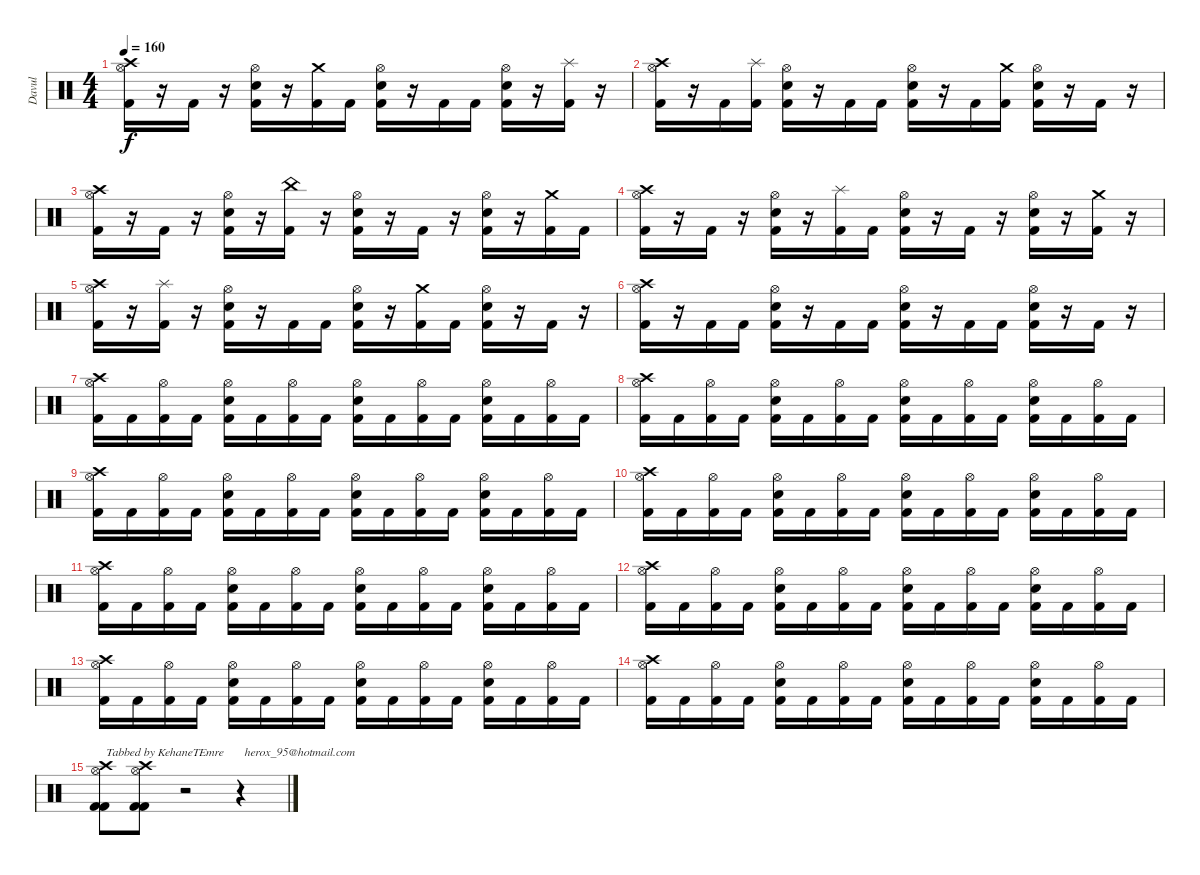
\track ("Davul" "Davul") {instrument percussion}
\staff {score}
\articulation defaults
\ts (4 4)
\tempo 160
\clef neutral
\ks c
("Crash high (hit)" "Hi-Hat (open)" "Kick (hit) 2").16{dy f} r.16 "Kick (hit) 2".16 r.16 ("Hi-Hat (open)" "Electric Snare (hit)" "Kick (hit) 2").16 r.16 ("Crash medium (hit)" "Kick (hit) 2").16 "Kick (hit) 2".16 ("Hi-Hat (open)" "Electric Snare (hit)" "Kick (hit) 2").16 r.16 "Kick (hit) 2".16 "Kick (hit) 2".16 ("Hi-Hat (open)" "Electric Snare (hit)" "Kick (hit) 2").16 r.16 ("Splash (hit)" "Kick (hit) 2").16 r.16 |
("Crash high (hit)" "Hi-Hat (open)" "Kick (hit) 2").16 r.16 "Kick (hit) 2".16 ("Splash (hit)" "Kick (hit) 2").16 ("Hi-Hat (open)" "Electric Snare (hit)" "Kick (hit) 2").16 r.16 "Kick (hit) 2".16 "Kick (hit) 2".16 ("Hi-Hat (open)" "Electric Snare (hit)" "Kick (hit) 2").16 r.16 "Kick (hit) 2".16 ("Crash medium (hit)" "Kick (hit) 2").16 ("Hi-Hat (open)" "Electric Snare (hit)" "Kick (hit) 2").16 r.16 "Kick (hit) 2".16 r.16 |
("Crash high (hit)" "Hi-Hat (open)" "Kick (hit) 2").16 r.16 "Kick (hit) 2".16 r.16 ("Hi-Hat (open)" "Electric Snare (hit)" "Kick (hit) 2").16 r.16 ("China (hit)" "Kick (hit) 2").16 r.16 ("Hi-Hat (open)" "Electric Snare (hit)" "Kick (hit) 2").16 r.16 "Kick (hit) 2".16 r.16 ("Hi-Hat (open)" "Electric Snare (hit)" "Kick (hit) 2").16 r.16 ("Crash medium (hit)" "Kick (hit) 2").16 "Kick (hit) 2".16 |
("Crash high (hit)" "Hi-Hat (open)" "Kick (hit) 2").16 r.16 "Kick (hit) 2".16 r.16 ("Hi-Hat (open)" "Electric Snare (hit)" "Kick (hit) 2").16 r.16 ("Splash (hit)" "Kick (hit) 2").16 "Kick (hit) 2".16 ("Hi-Hat (open)" "Electric Snare (hit)" "Kick (hit) 2").16 r.16 "Kick (hit) 2".16 r.16 ("Hi-Hat (open)" "Electric Snare (hit)" "Kick (hit) 2").16 r.16 ("Crash medium (hit)" "Kick (hit) 2").16 r.16 |
("Crash high (hit)" "Hi-Hat (open)" "Kick (hit) 2").16 r.16 ("Splash (hit)" "Kick (hit) 2").16 r.16 ("Hi-Hat (open)" "Electric Snare (hit)" "Kick (hit) 2").16 r.16 "Kick (hit) 2".16 "Kick (hit) 2".16 ("Hi-Hat (open)" "Electric Snare (hit)" "Kick (hit) 2").16 r.16 ("Crash medium (hit)" "Kick (hit) 2").16 "Kick (hit) 2".16 ("Hi-Hat (open)" "Electric Snare (hit)" "Kick (hit) 2").16 r.16 "Kick (hit) 2".16 r.16 |
("Crash high (hit)" "Hi-Hat (open)" "Kick (hit) 2").16 r.16 "Kick (hit) 2".16 "Kick (hit) 2".16 ("Hi-Hat (open)" "Electric Snare (hit)" "Kick (hit) 2").16 r.16 "Kick (hit) 2".16 "Kick (hit) 2".16 ("Hi-Hat (open)" "Electric Snare (hit)" "Kick (hit) 2").16 r.16 "Kick (hit) 2".16 "Kick (hit) 2".16 ("Hi-Hat (open)" "Electric Snare (hit)" "Kick (hit) 2").16 r.16 "Kick (hit) 2".16 r.16 |
("Hi-Hat (open)" "Crash high (hit)" "Kick (hit) 2").16 "Kick (hit) 2".16 ("Hi-Hat (open)" "Kick (hit) 2").16 "Kick (hit) 2".16 ("Hi-Hat (open)" "Electric Snare (hit)" "Kick (hit) 2").16 "Kick (hit) 2".16 ("Hi-Hat (open)" "Kick (hit) 2").16 "Kick (hit) 2".16 ("Hi-Hat (open)" "Electric Snare (hit)" "Kick (hit) 2").16 "Kick (hit) 2".16 ("Hi-Hat (open)" "Kick (hit) 2").16 "Kick (hit) 2".16 ("Hi-Hat (open)" "Electric Snare (hit)" "Kick (hit) 2").16 "Kick (hit) 2".16 ("Hi-Hat (open)" "Kick (hit) 2").16 "Kick (hit) 2".16 |
("Hi-Hat (open)" "Crash high (hit)" "Kick (hit) 2").16 "Kick (hit) 2".16 ("Hi-Hat (open)" "Kick (hit) 2").16 "Kick (hit) 2".16 ("Hi-Hat (open)" "Electric Snare (hit)" "Kick (hit) 2").16 "Kick (hit) 2".16 ("Hi-Hat (open)" "Kick (hit) 2").16 "Kick (hit) 2".16 ("Hi-Hat (open)" "Electric Snare (hit)" "Kick (hit) 2").16 "Kick (hit) 2".16 ("Hi-Hat (open)" "Kick (hit) 2").16 "Kick (hit) 2".16 ("Hi-Hat (open)" "Electric Snare (hit)" "Kick (hit) 2").16 "Kick (hit) 2".16 ("Hi-Hat (open)" "Kick (hit) 2").16 "Kick (hit) 2".16 |
("Hi-Hat (open)" "Crash high (hit)" "Kick (hit) 2").16 "Kick (hit) 2".16 ("Hi-Hat (open)" "Kick (hit) 2").16 "Kick (hit) 2".16 ("Hi-Hat (open)" "Electric Snare (hit)" "Kick (hit) 2").16 "Kick (hit) 2".16 ("Hi-Hat (open)" "Kick (hit) 2").16 "Kick (hit) 2".16 ("Hi-Hat (open)" "Electric Snare (hit)" "Kick (hit) 2").16 "Kick (hit) 2".16 ("Hi-Hat (open)" "Kick (hit) 2").16 "Kick (hit) 2".16 ("Hi-Hat (open)" "Electric Snare (hit)" "Kick (hit) 2").16 "Kick (hit) 2".16 ("Hi-Hat (open)" "Kick (hit) 2").16 "Kick (hit) 2".16 |
("Hi-Hat (open)" "Crash high (hit)" "Kick (hit) 2").16 "Kick (hit) 2".16 ("Hi-Hat (open)" "Kick (hit) 2").16 "Kick (hit) 2".16 ("Hi-Hat (open)" "Electric Snare (hit)" "Kick (hit) 2").16 "Kick (hit) 2".16 ("Hi-Hat (open)" "Kick (hit) 2").16 "Kick (hit) 2".16 ("Hi-Hat (open)" "Electric Snare (hit)" "Kick (hit) 2").16 "Kick (hit) 2".16 ("Hi-Hat (open)" "Kick (hit) 2").16 "Kick (hit) 2".16 ("Hi-Hat (open)" "Electric Snare (hit)" "Kick (hit) 2").16 "Kick (hit) 2".16 ("Hi-Hat (open)" "Kick (hit) 2").16 "Kick (hit) 2".16 |
("Hi-Hat (open)" "Crash high (hit)" "Kick (hit) 2").16 "Kick (hit) 2".16 ("Hi-Hat (open)" "Kick (hit) 2").16 "Kick (hit) 2".16 ("Hi-Hat (open)" "Electric Snare (hit)" "Kick (hit) 2").16 "Kick (hit) 2".16 ("Hi-Hat (open)" "Kick (hit) 2").16 "Kick (hit) 2".16 ("Hi-Hat (open)" "Electric Snare (hit)" "Kick (hit) 2").16 "Kick (hit) 2".16 ("Hi-Hat (open)" "Kick (hit) 2").16 "Kick (hit) 2".16 ("Hi-Hat (open)" "Electric Snare (hit)" "Kick (hit) 2").16 "Kick (hit) 2".16 ("Hi-Hat (open)" "Kick (hit) 2").16 "Kick (hit) 2".16 |
("Hi-Hat (open)" "Crash high (hit)" "Kick (hit) 2").16 "Kick (hit) 2".16 ("Hi-Hat (open)" "Kick (hit) 2").16 "Kick (hit) 2".16 ("Hi-Hat (open)" "Electric Snare (hit)" "Kick (hit) 2").16 "Kick (hit) 2".16 ("Hi-Hat (open)" "Kick (hit) 2").16 "Kick (hit) 2".16 ("Hi-Hat (open)" "Electric Snare (hit)" "Kick (hit) 2").16 "Kick (hit) 2".16 ("Hi-Hat (open)" "Kick (hit) 2").16 "Kick (hit) 2".16 ("Hi-Hat (open)" "Electric Snare (hit)" "Kick (hit) 2").16 "Kick (hit) 2".16 ("Hi-Hat (open)" "Kick (hit) 2").16 "Kick (hit) 2".16 |
("Hi-Hat (open)" "Crash high (hit)" "Kick (hit) 2").16 "Kick (hit) 2".16 ("Hi-Hat (open)" "Kick (hit) 2").16 "Kick (hit) 2".16 ("Hi-Hat (open)" "Electric Snare (hit)" "Kick (hit) 2").16 "Kick (hit) 2".16 ("Hi-Hat (open)" "Kick (hit) 2").16 "Kick (hit) 2".16 ("Hi-Hat (open)" "Electric Snare (hit)" "Kick (hit) 2").16 "Kick (hit) 2".16 ("Hi-Hat (open)" "Kick (hit) 2").16 "Kick (hit) 2".16 ("Hi-Hat (open)" "Electric Snare (hit)" "Kick (hit) 2").16 "Kick (hit) 2".16 ("Hi-Hat (open)" "Kick (hit) 2").16 "Kick (hit) 2".16 |
("Hi-Hat (open)" "Crash high (hit)" "Kick (hit) 2").16 "Kick (hit) 2".16 ("Hi-Hat (open)" "Kick (hit) 2").16 "Kick (hit) 2".16 ("Hi-Hat (open)" "Electric Snare (hit)" "Kick (hit) 2").16 "Kick (hit) 2".16 ("Hi-Hat (open)" "Kick (hit) 2").16 "Kick (hit) 2".16 ("Hi-Hat (open)" "Electric Snare (hit)" "Kick (hit) 2").16 "Kick (hit) 2".16 ("Hi-Hat (open)" "Kick (hit) 2").16 "Kick (hit) 2".16 ("Hi-Hat (open)" "Electric Snare (hit)" "Kick (hit) 2").16 "Kick (hit) 2".16 ("Hi-Hat (open)" "Kick (hit) 2").16 "Kick (hit) 2".16 |
("Crash high (hit)" "Hi-Hat (open)" "Kick (hit) 2" "Kick (hit) 2").8{txt "Tabbed by KehaneTEmre       herox_95@hotmail.com  "} ("Crash high (hit)" "Hi-Hat (open)" "Kick (hit) 2" "Kick (hit) 2").8 r.2 r.4
